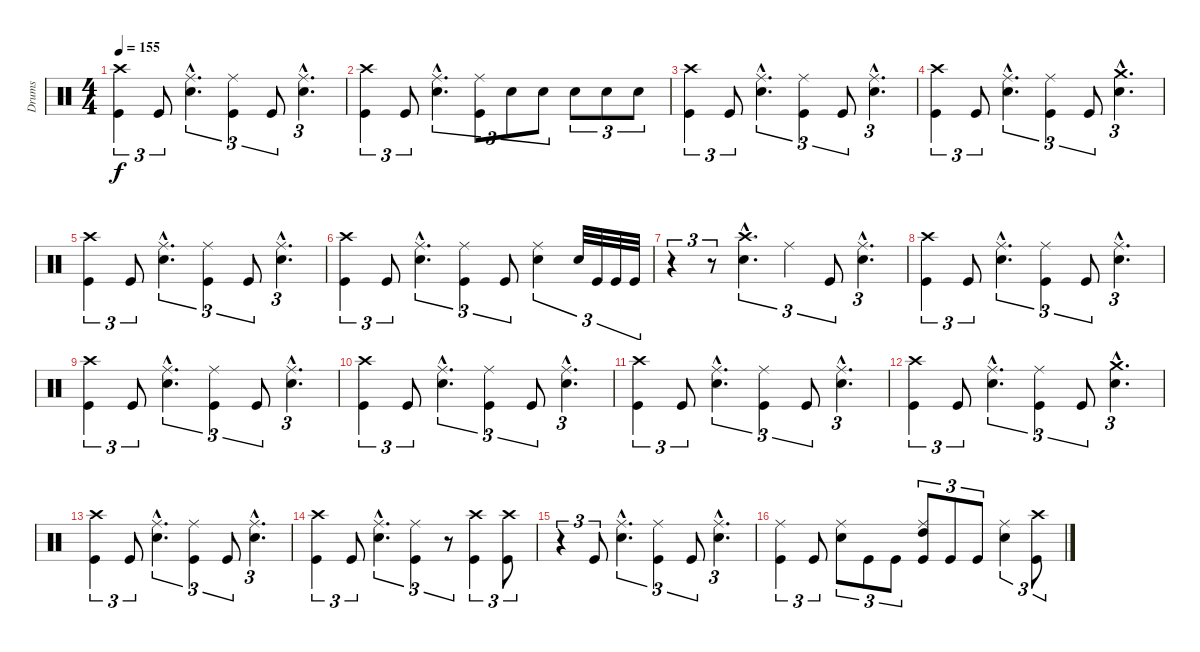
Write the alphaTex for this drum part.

\track ("Drums" "Drums") {instrument percussion}
\staff {score}
\articulation defaults
\ts (4 4)
\tempo 155
\clef neutral
\ks c
("Crash high (hit)" "Kick (hit)").4{tu (3 2) dy f} "Kick (hit)".8{tu (3 2)} ("Ride (middle)"{hac} "Snare (hit) 2"{hac}).4{d tu (3 2)} ("Ride (middle)" "Kick (hit)").4{tu (3 2)} "Kick (hit)".8{tu (3 2)} ("Ride (middle)"{hac} "Snare (hit) 2"{hac}).4{d tu (3 2)} |
("Crash high (hit)" "Kick (hit)").4{tu (3 2)} "Kick (hit)".8{tu (3 2)} ("Ride (middle)"{hac} "Snare (hit) 2"{hac}).4{d tu (3 2)} ("Ride (middle)" "Kick (hit)").8{tu (3 2)} "Snare (hit) 2".8{tu (3 2)} "Snare (hit) 2".8{tu (3 2)} "Snare (hit) 2".8{tu (3 2)} "Snare (hit) 2".8{tu (3 2)} "Snare (hit) 2".8{tu (3 2)} |
("Crash high (hit)" "Kick (hit)").4{tu (3 2)} "Kick (hit)".8{tu (3 2)} ("Ride (middle)"{hac} "Snare (hit) 2"{hac}).4{d tu (3 2)} ("Ride (middle)" "Kick (hit)").4{tu (3 2)} "Kick (hit)".8{tu (3 2)} ("Ride (middle)"{hac} "Snare (hit) 2"{hac}).4{d tu (3 2)} |
("Crash high (hit)" "Kick (hit)").4{tu (3 2)} "Kick (hit)".8{tu (3 2)} ("Ride (middle)"{hac} "Snare (hit) 2"{hac}).4{d tu (3 2)} ("Ride (middle)" "Kick (hit)").4{tu (3 2)} "Kick (hit)".8{tu (3 2)} ("Crash medium (hit)"{hac} "Snare (hit) 2"{hac}).4{d tu (3 2)} |
("Crash high (hit)" "Kick (hit)").4{tu (3 2)} "Kick (hit)".8{tu (3 2)} ("Ride (middle)"{hac} "Snare (hit) 2"{hac}).4{d tu (3 2)} ("Ride (middle)" "Kick (hit)").4{tu (3 2)} "Kick (hit)".8{tu (3 2)} ("Ride (middle)"{hac} "Snare (hit) 2"{hac}).4{d tu (3 2)} |
("Crash high (hit)" "Kick (hit)").4{tu (3 2)} "Kick (hit)".8{tu (3 2)} ("Ride (middle)"{hac} "Snare (hit) 2"{hac}).4{d tu (3 2)} ("Ride (middle)" "Kick (hit)").4{tu (3 2)} "Kick (hit)".8{tu (3 2)} ("Ride (middle)" "Snare (hit) 2").4{tu (3 2)} "Snare (hit) 2".32{tu (3 2)} "Kick (hit)".32{tu (3 2)} "Kick (hit)".32{tu (3 2)} "Kick (hit)".32{tu (3 2)} |
r.4{tu (3 2)} r.8{tu (3 2)} ("Crash high (hit)"{hac} "Snare (hit) 2"{hac}).4{d tu (3 2)} "Ride (middle)".4{tu (3 2)} "Kick (hit)".8{tu (3 2)} ("Ride (middle)"{hac} "Snare (hit) 2"{hac}).4{d tu (3 2)} |
("Crash high (hit)" "Kick (hit)").4{tu (3 2)} "Kick (hit)".8{tu (3 2)} ("Ride (middle)"{hac} "Snare (hit) 2"{hac}).4{d tu (3 2)} ("Ride (middle)" "Kick (hit)").4{tu (3 2)} "Kick (hit)".8{tu (3 2)} ("Ride (middle)"{hac} "Snare (hit) 2"{hac}).4{d tu (3 2)} |
("Crash high (hit)" "Kick (hit)").4{tu (3 2)} "Kick (hit)".8{tu (3 2)} ("Ride (middle)"{hac} "Snare (hit) 2"{hac}).4{d tu (3 2)} ("Ride (middle)" "Kick (hit)").4{tu (3 2)} "Kick (hit)".8{tu (3 2)} ("Ride (middle)"{hac} "Snare (hit) 2"{hac}).4{d tu (3 2)} |
("Crash high (hit)" "Kick (hit)").4{tu (3 2)} "Kick (hit)".8{tu (3 2)} ("Ride (middle)"{hac} "Snare (hit) 2"{hac}).4{d tu (3 2)} ("Ride (middle)" "Kick (hit)").4{tu (3 2)} "Kick (hit)".8{tu (3 2)} ("Ride (middle)"{hac} "Snare (hit) 2"{hac}).4{d tu (3 2)} |
("Crash high (hit)" "Kick (hit)").4{tu (3 2)} "Kick (hit)".8{tu (3 2)} ("Ride (middle)"{hac} "Snare (hit) 2"{hac}).4{d tu (3 2)} ("Ride (middle)" "Kick (hit)").4{tu (3 2)} "Kick (hit)".8{tu (3 2)} ("Ride (middle)"{hac} "Snare (hit) 2"{hac}).4{d tu (3 2)} |
("Crash high (hit)" "Kick (hit)").4{tu (3 2)} "Kick (hit)".8{tu (3 2)} ("Ride (middle)"{hac} "Snare (hit) 2"{hac}).4{d tu (3 2)} ("Ride (middle)" "Kick (hit)").4{tu (3 2)} "Kick (hit)".8{tu (3 2)} ("Crash medium (hit)"{hac} "Snare (hit) 2"{hac}).4{d tu (3 2)} |
("Crash high (hit)" "Kick (hit)").4{tu (3 2)} "Kick (hit)".8{tu (3 2)} ("Ride (middle)"{hac} "Snare (hit) 2"{hac}).4{d tu (3 2)} ("Ride (middle)" "Kick (hit)").4{tu (3 2)} "Kick (hit)".8{tu (3 2)} ("Ride (middle)"{hac} "Snare (hit) 2"{hac}).4{d tu (3 2)} |
("Crash high (hit)" "Kick (hit)").4{tu (3 2)} "Kick (hit)".8{tu (3 2)} ("Ride (middle)"{hac} "Snare (hit) 2"{hac}).4{d tu (3 2)} ("Ride (middle)" "Kick (hit)").4{tu (3 2)} r.8{tu (3 2)} ("Crash high (hit)" "Kick (hit)").4{tu (3 2)} ("Crash high (hit)" "Kick (hit)").8{tu (3 2)} |
r.4{tu (3 2)} "Kick (hit)".8{tu (3 2)} ("Ride (middle)"{hac} "Snare (hit) 2"{hac}).4{d tu (3 2)} ("Ride (middle)" "Kick (hit)").4{tu (3 2)} "Kick (hit)".8{tu (3 2)} ("Ride (middle)"{hac} "Snare (hit) 2"{hac}).4{d tu (3 2)} |
("Ride (middle)" "Kick (hit)").4{tu (3 2)} "Kick (hit)".8{tu (3 2)} ("Ride (middle)" "Snare (hit) 2").8{tu (3 2)} "Kick (hit)".8{tu (3 2)} "Kick (hit)".8{tu (3 2)} ("Ride (middle)" "Kick (hit)" "High Tom (hit)").8{tu (3 2)} "Kick (hit)".8{tu (3 2)} "Kick (hit)".8{tu (3 2)} ("Ride (middle)" "Snare (hit) 2").4{tu (3 2)} ("Crash high (hit)" "Kick (hit)").8{tu (3 2)}
